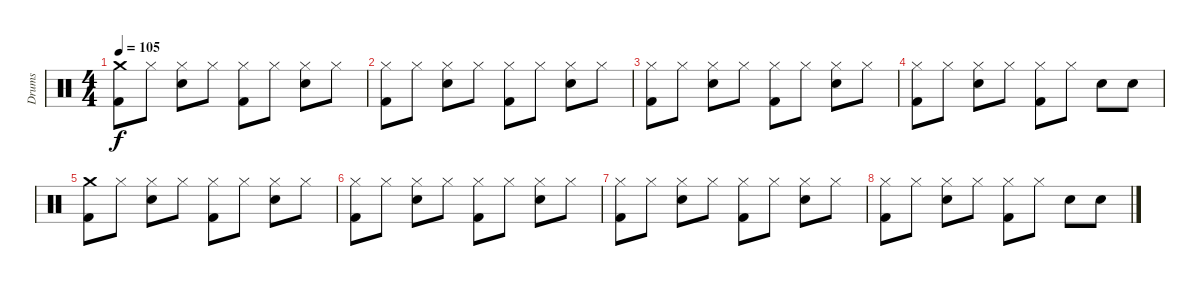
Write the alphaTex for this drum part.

\track ("Drums" "Drums") {instrument percussion}
\staff {score}
\articulation defaults
\ts (4 4)
\tempo 105
\clef neutral
\ks c
("Crash medium (hit)" "Kick (hit) 2").8{dy f} "Hi-Hat (closed)".8 ("Hi-Hat (closed)" "Snare (hit) 2").8 "Hi-Hat (closed)".8 ("Hi-Hat (closed)" "Kick (hit) 2").8 "Hi-Hat (closed)".8 ("Hi-Hat (closed)" "Snare (hit) 2").8 "Hi-Hat (closed)".8 |
("Hi-Hat (closed)" "Kick (hit) 2").8 "Hi-Hat (closed)".8 ("Hi-Hat (closed)" "Snare (hit) 2").8 "Hi-Hat (closed)".8 ("Hi-Hat (closed)" "Kick (hit) 2").8 "Hi-Hat (closed)".8 ("Hi-Hat (closed)" "Snare (hit) 2").8 "Hi-Hat (closed)".8 |
("Hi-Hat (closed)" "Kick (hit) 2").8{volume 0} "Hi-Hat (closed)".8 ("Hi-Hat (closed)" "Snare (hit) 2").8 "Hi-Hat (closed)".8 ("Hi-Hat (closed)" "Kick (hit) 2").8 "Hi-Hat (closed)".8 ("Hi-Hat (closed)" "Snare (hit) 2").8 "Hi-Hat (closed)".8 |
("Hi-Hat (closed)" "Kick (hit) 2").8 "Hi-Hat (closed)".8 ("Hi-Hat (closed)" "Snare (hit) 2").8 "Hi-Hat (closed)".8 ("Hi-Hat (closed)" "Kick (hit) 2").8 "Hi-Hat (closed)".8 "Snare (hit) 2".8 "Snare (hit) 2".8 |
("Crash medium (hit)" "Kick (hit) 2").8 "Hi-Hat (closed)".8 ("Hi-Hat (closed)" "Snare (hit) 2").8 "Hi-Hat (closed)".8 ("Hi-Hat (closed)" "Kick (hit) 2").8 "Hi-Hat (closed)".8 ("Hi-Hat (closed)" "Snare (hit) 2").8 "Hi-Hat (closed)".8 |
("Hi-Hat (closed)" "Kick (hit) 2").8 "Hi-Hat (closed)".8 ("Hi-Hat (closed)" "Snare (hit) 2").8 "Hi-Hat (closed)".8 ("Hi-Hat (closed)" "Kick (hit) 2").8 "Hi-Hat (closed)".8 ("Hi-Hat (closed)" "Snare (hit) 2").8 "Hi-Hat (closed)".8 |
("Hi-Hat (closed)" "Kick (hit) 2").8 "Hi-Hat (closed)".8 ("Hi-Hat (closed)" "Snare (hit) 2").8 "Hi-Hat (closed)".8 ("Hi-Hat (closed)" "Kick (hit) 2").8 "Hi-Hat (closed)".8 ("Hi-Hat (closed)" "Snare (hit) 2").8 "Hi-Hat (closed)".8 |
("Hi-Hat (closed)" "Kick (hit) 2").8 "Hi-Hat (closed)".8 ("Hi-Hat (closed)" "Snare (hit) 2").8 "Hi-Hat (closed)".8 ("Hi-Hat (closed)" "Kick (hit) 2").8 "Hi-Hat (closed)".8 "Snare (hit) 2".8 "Snare (hit) 2".8
